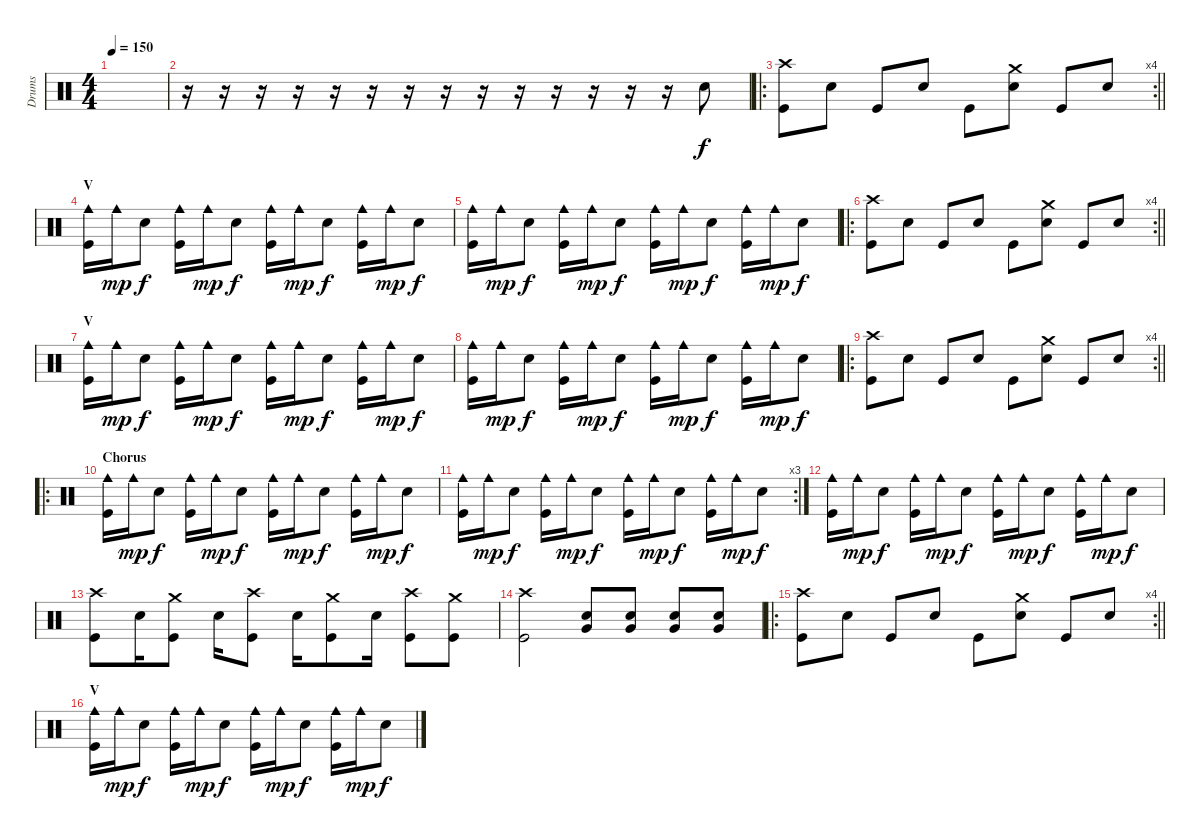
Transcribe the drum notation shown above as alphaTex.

\track ("Drums" "Drums") {instrument percussion}
\staff {score}
\articulation defaults
\ts (4 4)
\tempo 150
\clef neutral
\ks c
|
r.16 r.16 r.16 r.16 r.16 r.16 r.16 r.16 r.16 r.16 r.16 r.16 r.16 r.16 "Snare (hit) 2".8 |
\ro
\rc 4
\barLineRight lightlight
("Crash high (hit)" "Kick (hit)").8 "Snare (hit) 2".8 "Kick (hit)".8 "Snare (hit) 2".8 "Kick (hit)".8 ("Crash medium (hit)" "Snare (hit) 2").8 "Kick (hit)".8 "Snare (hit) 2".8 |
\section ("" "V")
("Cowbell medium (hit)" "Kick (hit)").16 "Cowbell medium (hit)".16{dy mp} "Snare (hit) 2".8{dy f} ("Cowbell medium (hit)" "Kick (hit)").16 "Cowbell medium (hit)".16{dy mp} "Snare (hit) 2".8{dy f} ("Cowbell medium (hit)" "Kick (hit)").16 "Cowbell medium (hit)".16{dy mp} "Snare (hit) 2".8{dy f} ("Cowbell medium (hit)" "Kick (hit)").16 "Cowbell medium (hit)".16{dy mp} "Snare (hit) 2".8{dy f} |
("Cowbell medium (hit)" "Kick (hit)").16 "Cowbell medium (hit)".16{dy mp} "Snare (hit) 2".8{dy f} ("Cowbell medium (hit)" "Kick (hit)").16 "Cowbell medium (hit)".16{dy mp} "Snare (hit) 2".8{dy f} ("Cowbell medium (hit)" "Kick (hit)").16 "Cowbell medium (hit)".16{dy mp} "Snare (hit) 2".8{dy f} ("Cowbell medium (hit)" "Kick (hit)").16 "Cowbell medium (hit)".16{dy mp} "Snare (hit) 2".8{dy f} |
\ro
\rc 4
\barLineRight lightlight
("Crash high (hit)" "Kick (hit)").8 "Snare (hit) 2".8 "Kick (hit)".8 "Snare (hit) 2".8 "Kick (hit)".8 ("Crash medium (hit)" "Snare (hit) 2").8 "Kick (hit)".8 "Snare (hit) 2".8 |
\section ("" "V")
("Cowbell medium (hit)" "Kick (hit)").16 "Cowbell medium (hit)".16{dy mp} "Snare (hit) 2".8{dy f} ("Cowbell medium (hit)" "Kick (hit)").16 "Cowbell medium (hit)".16{dy mp} "Snare (hit) 2".8{dy f} ("Cowbell medium (hit)" "Kick (hit)").16 "Cowbell medium (hit)".16{dy mp} "Snare (hit) 2".8{dy f} ("Cowbell medium (hit)" "Kick (hit)").16 "Cowbell medium (hit)".16{dy mp} "Snare (hit) 2".8{dy f} |
("Cowbell medium (hit)" "Kick (hit)").16 "Cowbell medium (hit)".16{dy mp} "Snare (hit) 2".8{dy f} ("Cowbell medium (hit)" "Kick (hit)").16 "Cowbell medium (hit)".16{dy mp} "Snare (hit) 2".8{dy f} ("Cowbell medium (hit)" "Kick (hit)").16 "Cowbell medium (hit)".16{dy mp} "Snare (hit) 2".8{dy f} ("Cowbell medium (hit)" "Kick (hit)").16 "Cowbell medium (hit)".16{dy mp} "Snare (hit) 2".8{dy f} |
\ro
\rc 4
\barLineRight lightlight
("Crash high (hit)" "Kick (hit)").8 "Snare (hit) 2".8 "Kick (hit)".8 "Snare (hit) 2".8 "Kick (hit)".8 ("Crash medium (hit)" "Snare (hit) 2").8 "Kick (hit)".8 "Snare (hit) 2".8 |
\ro
\section ("" "Chorus")
("Cowbell medium (hit)" "Kick (hit)").16 "Cowbell medium (hit)".16{dy mp} "Snare (hit) 2".8{dy f} ("Cowbell medium (hit)" "Kick (hit)").16 "Cowbell medium (hit)".16{dy mp} "Snare (hit) 2".8{dy f} ("Cowbell medium (hit)" "Kick (hit)").16 "Cowbell medium (hit)".16{dy mp} "Snare (hit) 2".8{dy f} ("Cowbell medium (hit)" "Kick (hit)").16 "Cowbell medium (hit)".16{dy mp} "Snare (hit) 2".8{dy f} |
\rc 3
("Cowbell medium (hit)" "Kick (hit)").16 "Cowbell medium (hit)".16{dy mp} "Snare (hit) 2".8{dy f} ("Cowbell medium (hit)" "Kick (hit)").16 "Cowbell medium (hit)".16{dy mp} "Snare (hit) 2".8{dy f} ("Cowbell medium (hit)" "Kick (hit)").16 "Cowbell medium (hit)".16{dy mp} "Snare (hit) 2".8{dy f} ("Cowbell medium (hit)" "Kick (hit)").16 "Cowbell medium (hit)".16{dy mp} "Snare (hit) 2".8{dy f} |
("Cowbell medium (hit)" "Kick (hit)").16 "Cowbell medium (hit)".16{dy mp} "Snare (hit) 2".8{dy f} ("Cowbell medium (hit)" "Kick (hit)").16 "Cowbell medium (hit)".16{dy mp} "Snare (hit) 2".8{dy f} ("Cowbell medium (hit)" "Kick (hit)").16 "Cowbell medium (hit)".16{dy mp} "Snare (hit) 2".8{dy f} ("Cowbell medium (hit)" "Kick (hit)").16 "Cowbell medium (hit)".16{dy mp} "Snare (hit) 2".8{dy f} |
("Crash high (hit)" "Kick (hit)").8 "Snare (hit) 2".16 ("Crash medium (hit)" "Kick (hit)").8 "Snare (hit) 2".16 ("Crash high (hit)" "Kick (hit)").8 "Snare (hit) 2".16 ("Crash medium (hit)" "Kick (hit)").8 "Snare (hit) 2".16 ("Crash high (hit)" "Kick (hit)").8 ("Crash medium (hit)" "Kick (hit)").8 |
("Crash high (hit)" "Kick (hit)").2 ("Snare (hit) 2" "Very Low Tom (hit)").8 ("Snare (hit) 2" "Very Low Tom (hit)").8 ("Snare (hit) 2" "Very Low Tom (hit)").8 ("Snare (hit) 2" "Very Low Tom (hit)").8 |
\ro
\rc 4
\barLineRight lightlight
("Crash high (hit)" "Kick (hit)").8 "Snare (hit) 2".8 "Kick (hit)".8 "Snare (hit) 2".8 "Kick (hit)".8 ("Crash medium (hit)" "Snare (hit) 2").8 "Kick (hit)".8 "Snare (hit) 2".8 |
\section ("" "V")
("Cowbell medium (hit)" "Kick (hit)").16 "Cowbell medium (hit)".16{dy mp} "Snare (hit) 2".8{dy f} ("Cowbell medium (hit)" "Kick (hit)").16 "Cowbell medium (hit)".16{dy mp} "Snare (hit) 2".8{dy f} ("Cowbell medium (hit)" "Kick (hit)").16 "Cowbell medium (hit)".16{dy mp} "Snare (hit) 2".8{dy f} ("Cowbell medium (hit)" "Kick (hit)").16 "Cowbell medium (hit)".16{dy mp} "Snare (hit) 2".8{dy f}
